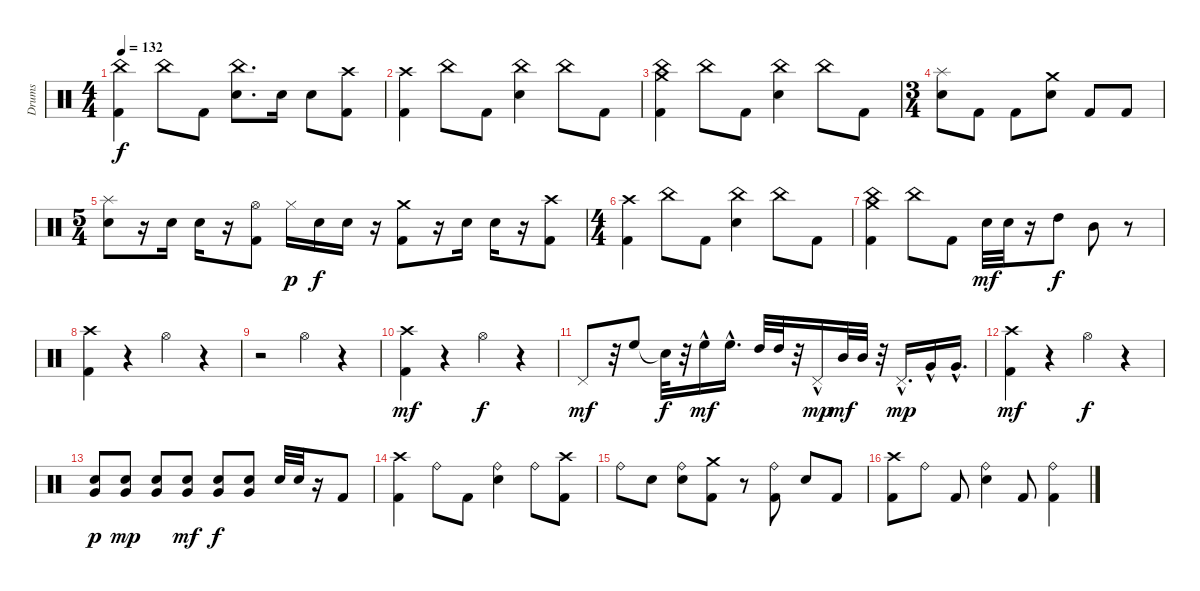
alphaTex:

\track ("Drums" "Drums") {instrument percussion}
\staff {score}
\articulation defaults
\ts (4 4)
\tempo 132
\clef neutral
\ks c
("Kick (hit) 2" "China (hit)").4{dy f} "China (hit)".8 "Kick (hit) 2".8 ("China (hit)" "Electric Snare (hit)").8{d} "Electric Snare (hit)".16 "Electric Snare (hit)".8 ("Kick (hit) 2" "Crash high (hit)").8 |
("Kick (hit) 2" "Crash high (hit)").4 "China (hit)".8 "Kick (hit) 2".8 ("China (hit)" "Electric Snare (hit)").4 "China (hit)".8 "Kick (hit) 2".8 |
("Kick (hit) 2" "Crash medium (hit)" "China (hit)").4 "China (hit)".8 "Kick (hit) 2".8 ("China (hit)" "Electric Snare (hit)").4 "China (hit)".8 "Kick (hit) 2".8 |
\ts (3 4)
("Electric Snare (hit)" "Splash (hit)").8 "Kick (hit) 2".8 "Kick (hit) 2".8 ("Electric Snare (hit)" "Crash medium (hit)").8 "Kick (hit) 2".8 "Kick (hit) 2".8 |
\ts (5 4)
("Electric Snare (hit)" "Splash (hit)").8 r.16 "Electric Snare (hit)".16 "Electric Snare (hit)".16 r.16 ("Hi-Hat (open)" "Kick (hit) 2").8 "Hi-Hat (closed)".16{dy p} "Electric Snare (hit)".16{dy f} "Electric Snare (hit)".16 r.16 ("Kick (hit) 2" "Crash medium (hit)").8 r.16 "Electric Snare (hit)".16 "Electric Snare (hit)".16 r.16 ("Kick (hit) 2" "Crash high (hit)").8 |
\ts (4 4)
("Crash high (hit)" "Kick (hit) 2").4 "China (hit)".8 "Kick (hit) 2".8 ("China (hit)" "Electric Snare (hit)").4 "China (hit)".8 "Kick (hit) 2".8 |
("Kick (hit) 2" "Crash medium (hit)" "China (hit)").4 "China (hit)".8 "Kick (hit) 2".8 "Electric Snare (hit)".32{dy mf} "Electric Snare (hit)".32 r.16 "High Tom (hit)".8{dy f} "Mid Tom (hit)".8 r.8 |
("Kick (hit) 2" "Crash high (hit)").4 r.4 "Hi-Hat (open)".4 r.4 |
r.2 "Hi-Hat (open)".4 r.4 |
("Crash high (hit)" "Kick (hit) 2").4{dy mf} r.4 "Hi-Hat (open)".4{dy f} r.4 |
"Pedal Hi-Hat (hit)".8{dy mf} r.32 "High Floor Tom (hit)".8 "Snare (hit)"{t}.32{dy f} r.32 "High Floor Tom (hit)"{hac}.16{dy mf} "High Floor Tom (hit)"{hac}.16{d} "High Tom (hit)".32 "High Tom (hit)".32 r.32 "Pedal Hi-Hat (hit)"{hac}.16{dy mp} "Mid Tom (hit)".32{dy mf} "Mid Tom (hit)".32 r.32 "Pedal Hi-Hat (hit)"{hac}.16{d dy mp} "Very Low Tom (hit)"{hac}.16 "Very Low Tom (hit)"{hac}.16{d} |
("Kick (hit) 2" "Crash high (hit)").4{dy mf} r.4 "Hi-Hat (open)".4{dy f} r.4 |
("Electric Snare (hit)" "Very Low Tom (hit)").8{dy p} ("Electric Snare (hit)" "Very Low Tom (hit)").8{dy mp} ("Electric Snare (hit)" "Very Low Tom (hit)").8 ("Electric Snare (hit)" "Very Low Tom (hit)").8{dy mf} ("Electric Snare (hit)" "Very Low Tom (hit)").8{dy f} ("Electric Snare (hit)" "Very Low Tom (hit)").8 "Electric Snare (hit)".32 "Electric Snare (hit)".32 r.16 "Kick (hit) 2".8 |
("Kick (hit) 2" "Crash high (hit)").4 "Ride (bell)".8 "Kick (hit) 2".8 ("Ride (bell)" "Electric Snare (hit)").4 "Ride (bell)".8 ("Kick (hit) 2" "Crash high (hit)").8 |
"Ride (bell)".8 "Electric Snare (hit)".8 ("Electric Snare (hit)" "Ride (bell)").8 ("Kick (hit) 2" "Crash medium (hit)").8 r.8 ("Kick (hit) 2" "Ride (bell)").8 "Electric Snare (hit)".8 "Kick (hit) 2".8 |
("Crash high (hit)" "Kick (hit) 2").8 "Ride (bell)".8 "Kick (hit) 2".8 ("Electric Snare (hit)" "Ride (bell)").4 "Kick (hit) 2".8 ("Kick (hit) 2" "Ride (bell)").4
